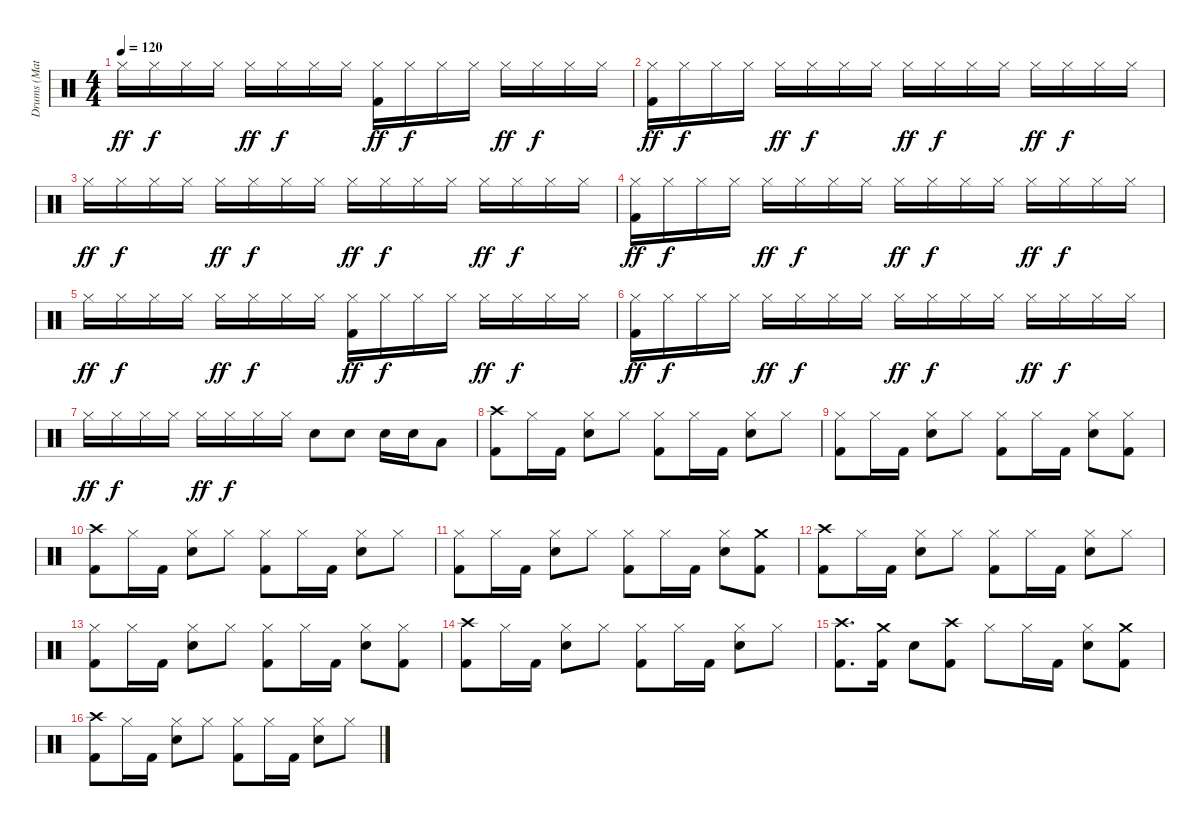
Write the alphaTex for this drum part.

\track ("Drums (Matt)" "Drums (Mat") {instrument percussion}
\staff {score}
\articulation defaults
\ts (4 4)
\tempo 120
\clef neutral
\ks c "Hi-Hat (closed)".16{dy ff} "Hi-Hat (closed)".16{dy f} "Hi-Hat (closed)".16 "Hi-Hat (closed)".16 "Hi-Hat (closed)".16{dy ff} "Hi-Hat (closed)".16{dy f} "Hi-Hat (closed)".16 "Hi-Hat (closed)".16
("Hi-Hat (closed)" "Kick (hit) 2").16{dy ff} "Hi-Hat (closed)".16{dy f} "Hi-Hat (closed)".16 "Hi-Hat (closed)".16 "Hi-Hat (closed)".16{dy ff} "Hi-Hat (closed)".16{dy f} "Hi-Hat (closed)".16 "Hi-Hat (closed)".16 |
("Hi-Hat (closed)" "Kick (hit) 2").16{dy ff} "Hi-Hat (closed)".16{dy f} "Hi-Hat (closed)".16 "Hi-Hat (closed)".16 "Hi-Hat (closed)".16{dy ff} "Hi-Hat (closed)".16{dy f} "Hi-Hat (closed)".16 "Hi-Hat (closed)".16 "Hi-Hat (closed)".16{dy ff} "Hi-Hat (closed)".16{dy f} "Hi-Hat (closed)".16 "Hi-Hat (closed)".16 "Hi-Hat (closed)".16{dy ff} "Hi-Hat (closed)".16{dy f} "Hi-Hat (closed)".16 "Hi-Hat (closed)".16 |
"Hi-Hat (closed)".16{dy ff} "Hi-Hat (closed)".16{dy f} "Hi-Hat (closed)".16 "Hi-Hat (closed)".16 "Hi-Hat (closed)".16{dy ff} "Hi-Hat (closed)".16{dy f} "Hi-Hat (closed)".16 "Hi-Hat (closed)".16 "Hi-Hat (closed)".16{dy ff} "Hi-Hat (closed)".16{dy f} "Hi-Hat (closed)".16 "Hi-Hat (closed)".16 "Hi-Hat (closed)".16{dy ff} "Hi-Hat (closed)".16{dy f} "Hi-Hat (closed)".16 "Hi-Hat (closed)".16 |
("Hi-Hat (closed)" "Kick (hit) 2").16{dy ff} "Hi-Hat (closed)".16{dy f} "Hi-Hat (closed)".16 "Hi-Hat (closed)".16 "Hi-Hat (closed)".16{dy ff} "Hi-Hat (closed)".16{dy f} "Hi-Hat (closed)".16 "Hi-Hat (closed)".16 "Hi-Hat (closed)".16{dy ff} "Hi-Hat (closed)".16{dy f} "Hi-Hat (closed)".16 "Hi-Hat (closed)".16 "Hi-Hat (closed)".16{dy ff} "Hi-Hat (closed)".16{dy f} "Hi-Hat (closed)".16 "Hi-Hat (closed)".16 |
"Hi-Hat (closed)".16{dy ff} "Hi-Hat (closed)".16{dy f} "Hi-Hat (closed)".16 "Hi-Hat (closed)".16 "Hi-Hat (closed)".16{dy ff} "Hi-Hat (closed)".16{dy f} "Hi-Hat (closed)".16 "Hi-Hat (closed)".16 ("Hi-Hat (closed)" "Kick (hit) 2").16{dy ff} "Hi-Hat (closed)".16{dy f} "Hi-Hat (closed)".16 "Hi-Hat (closed)".16 "Hi-Hat (closed)".16{dy ff} "Hi-Hat (closed)".16{dy f} "Hi-Hat (closed)".16 "Hi-Hat (closed)".16 |
("Hi-Hat (closed)" "Kick (hit) 2").16{dy ff} "Hi-Hat (closed)".16{dy f} "Hi-Hat (closed)".16 "Hi-Hat (closed)".16 "Hi-Hat (closed)".16{dy ff} "Hi-Hat (closed)".16{dy f} "Hi-Hat (closed)".16 "Hi-Hat (closed)".16 "Hi-Hat (closed)".16{dy ff} "Hi-Hat (closed)".16{dy f} "Hi-Hat (closed)".16 "Hi-Hat (closed)".16 "Hi-Hat (closed)".16{dy ff} "Hi-Hat (closed)".16{dy f} "Hi-Hat (closed)".16 "Hi-Hat (closed)".16 |
"Hi-Hat (closed)".16{dy ff} "Hi-Hat (closed)".16{dy f} "Hi-Hat (closed)".16 "Hi-Hat (closed)".16 "Hi-Hat (closed)".16{dy ff} "Hi-Hat (closed)".16{dy f} "Hi-Hat (closed)".16 "Hi-Hat (closed)".16 "Snare (hit) 2".8 "Snare (hit) 2".8 "Snare (hit) 2".16 "Snare (hit) 2".16 "Low Tom (hit)".8 |
("Crash high (hit)" "Kick (hit) 2").8 "Hi-Hat (closed)".16 "Kick (hit) 2".16 ("Hi-Hat (closed)" "Snare (hit) 2").8 "Hi-Hat (closed)".8 ("Hi-Hat (closed)" "Kick (hit) 2").8 "Hi-Hat (closed)".16 "Kick (hit) 2".16 ("Hi-Hat (closed)" "Snare (hit) 2").8 "Hi-Hat (closed)".8 |
("Hi-Hat (closed)" "Kick (hit) 2").8 "Hi-Hat (closed)".16 "Kick (hit) 2".16 ("Hi-Hat (closed)" "Snare (hit) 2").8 "Hi-Hat (closed)".8 ("Hi-Hat (closed)" "Kick (hit) 2").8 "Hi-Hat (closed)".16 "Kick (hit) 2".16 ("Hi-Hat (closed)" "Snare (hit) 2").8 ("Hi-Hat (closed)" "Kick (hit) 2").8 |
("Crash high (hit)" "Kick (hit) 2").8 "Hi-Hat (closed)".16 "Kick (hit) 2".16 ("Hi-Hat (closed)" "Snare (hit) 2").8 "Hi-Hat (closed)".8 ("Hi-Hat (closed)" "Kick (hit) 2").8 "Hi-Hat (closed)".16 "Kick (hit) 2".16 ("Hi-Hat (closed)" "Snare (hit) 2").8 "Hi-Hat (closed)".8 |
("Hi-Hat (closed)" "Kick (hit) 2").8 "Hi-Hat (closed)".16 "Kick (hit) 2".16 ("Hi-Hat (closed)" "Snare (hit) 2").8 "Hi-Hat (closed)".8 ("Hi-Hat (closed)" "Kick (hit) 2").8 "Hi-Hat (closed)".16 "Kick (hit) 2".16 ("Hi-Hat (closed)" "Snare (hit) 2").8 ("Crash medium (hit)" "Kick (hit) 2").8 |
("Crash high (hit)" "Kick (hit) 2").8 "Hi-Hat (closed)".16 "Kick (hit) 2".16 ("Hi-Hat (closed)" "Snare (hit) 2").8 "Hi-Hat (closed)".8 ("Hi-Hat (closed)" "Kick (hit) 2").8 "Hi-Hat (closed)".16 "Kick (hit) 2".16 ("Hi-Hat (closed)" "Snare (hit) 2").8 "Hi-Hat (closed)".8 |
("Hi-Hat (closed)" "Kick (hit) 2").8 "Hi-Hat (closed)".16 "Kick (hit) 2".16 ("Hi-Hat (closed)" "Snare (hit) 2").8 "Hi-Hat (closed)".8 ("Hi-Hat (closed)" "Kick (hit) 2").8 "Hi-Hat (closed)".16 "Kick (hit) 2".16 ("Hi-Hat (closed)" "Snare (hit) 2").8 ("Hi-Hat (closed)" "Kick (hit) 2").8 |
("Crash high (hit)" "Kick (hit) 2").8 "Hi-Hat (closed)".16 "Kick (hit) 2".16 ("Hi-Hat (closed)" "Snare (hit) 2").8 "Hi-Hat (closed)".8 ("Hi-Hat (closed)" "Kick (hit) 2").8 "Hi-Hat (closed)".16 "Kick (hit) 2".16 ("Hi-Hat (closed)" "Snare (hit) 2").8 "Hi-Hat (closed)".8 |
("Crash high (hit)" "Kick (hit) 2").8{d} ("Crash medium (hit)" "Kick (hit) 2").16 "Snare (hit) 2".8 ("Crash high (hit)" "Kick (hit) 2").8 "Hi-Hat (closed)".8 "Hi-Hat (closed)".16 "Kick (hit) 2".16 ("Hi-Hat (closed)" "Snare (hit) 2").8 ("Crash medium (hit)" "Kick (hit) 2").8 |
("Crash high (hit)" "Kick (hit) 2").8 "Hi-Hat (closed)".16 "Kick (hit) 2".16 ("Hi-Hat (closed)" "Snare (hit) 2").8 "Hi-Hat (closed)".8 ("Hi-Hat (closed)" "Kick (hit) 2").8 "Hi-Hat (closed)".16 "Kick (hit) 2".16 ("Hi-Hat (closed)" "Snare (hit) 2").8 "Hi-Hat (closed)".8
